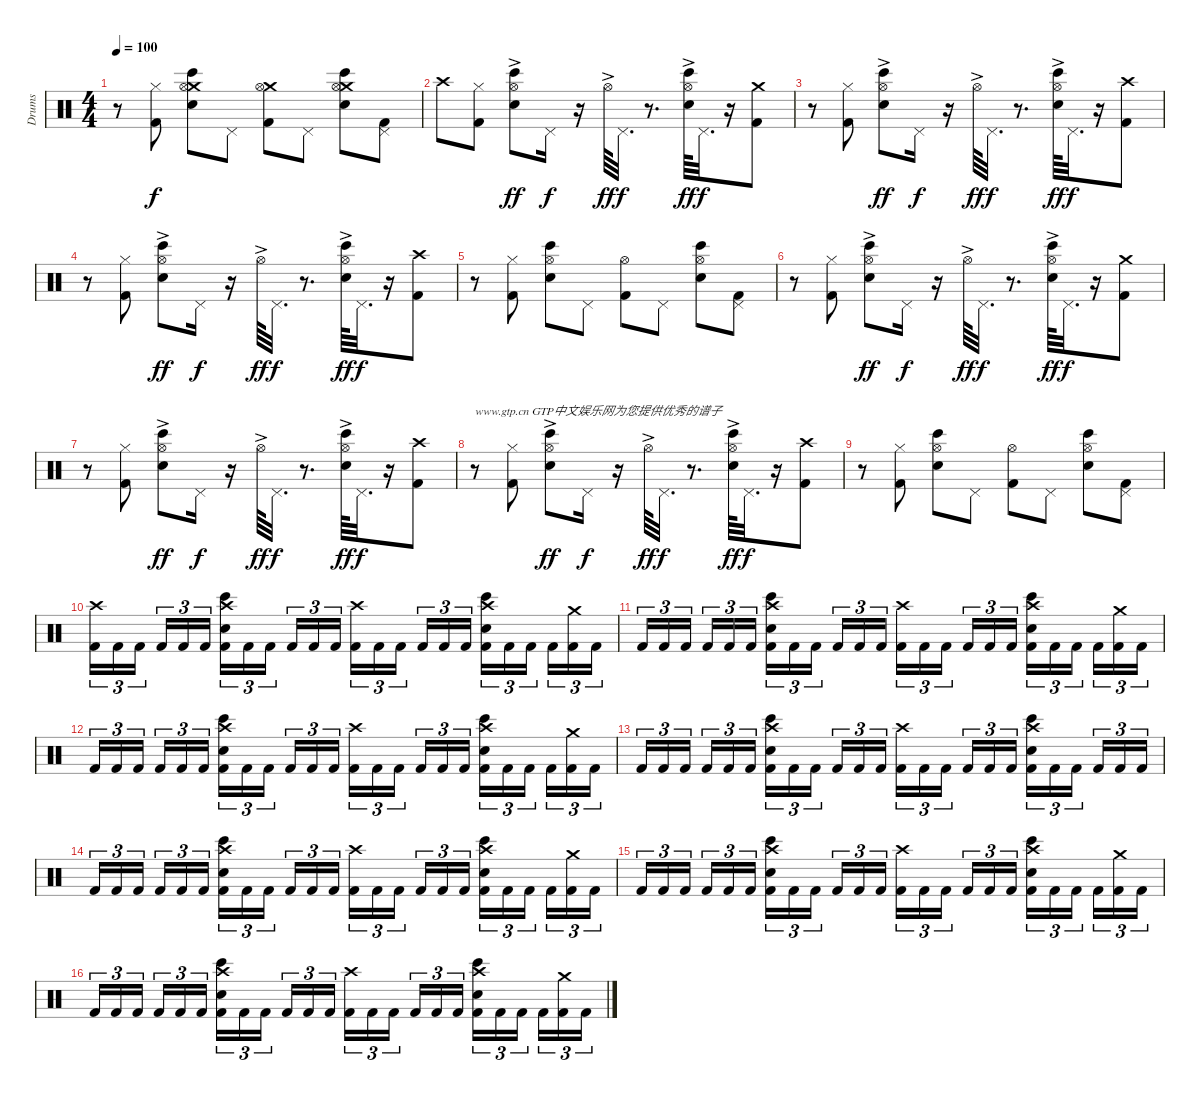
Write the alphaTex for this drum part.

\track ("Drums" "Drums") {instrument percussion}
\staff {score}
\articulation defaults
\ts (4 4)
\tempo 100
\clef neutral
\ks c
r.8{dy f} ("Hi-Hat (closed)" "Kick (hit) 2").8 ("Crash medium (hit)" "Hi-Hat (open)" "Bongo High (hit)" "Electric Snare (hit)").8 "Pedal Hi-Hat (hit)".8 ("Crash medium (hit)" "Hi-Hat (open)" "Kick (hit) 2").8 "Pedal Hi-Hat (hit)".8 ("Crash medium (hit)" "Hi-Hat (open)" "Bongo High (hit)" "Electric Snare (hit)").8 ("Pedal Hi-Hat (hit)" "Kick (hit) 2").8 |
"Crash high (hit)".8 ("Hi-Hat (closed)" "Kick (hit) 2").8 ("Hi-Hat (open)"{ac} "Bongo High (hit)" "Electric Snare (hit)").8{dy ff} "Pedal Hi-Hat (hit)".16{dy f} r.16 "Hi-Hat (open)"{ac}.64{dy ff} "Pedal Hi-Hat (hit)".32{d dy f} r.8{d} ("Hi-Hat (open)"{ac} "Bongo High (hit)" "Electric Snare (hit)").64{dy ff} "Pedal Hi-Hat (hit)".32{d dy f} r.16 ("Crash medium (hit)" "Kick (hit) 2").8 |
r.8 ("Hi-Hat (closed)" "Kick (hit) 2").8 ("Hi-Hat (open)"{ac} "Bongo High (hit)" "Electric Snare (hit)").8{dy ff} "Pedal Hi-Hat (hit)".16{dy f} r.16 "Hi-Hat (open)"{ac}.64{dy ff} "Pedal Hi-Hat (hit)".32{d dy f} r.8{d} ("Hi-Hat (open)"{ac} "Bongo High (hit)" "Electric Snare (hit)").64{dy ff} "Pedal Hi-Hat (hit)".32{d dy f} r.16 ("Crash high (hit)" "Kick (hit) 2").8 |
r.8 ("Hi-Hat (closed)" "Kick (hit) 2").8 ("Hi-Hat (open)"{ac} "Bongo High (hit)" "Electric Snare (hit)").8{dy ff} "Pedal Hi-Hat (hit)".16{dy f} r.16 "Hi-Hat (open)"{ac}.64{dy ff} "Pedal Hi-Hat (hit)".32{d dy f} r.8{d} ("Hi-Hat (open)"{ac} "Bongo High (hit)" "Electric Snare (hit)").64{dy ff} "Pedal Hi-Hat (hit)".32{d dy f} r.16 ("Crash high (hit)" "Kick (hit) 2").8 |
r.8 ("Hi-Hat (closed)" "Kick (hit) 2").8 ("Hi-Hat (open)" "Bongo High (hit)" "Electric Snare (hit)").8 "Pedal Hi-Hat (hit)".8 ("Hi-Hat (open)" "Kick (hit) 2").8 "Pedal Hi-Hat (hit)".8 ("Hi-Hat (open)" "Bongo High (hit)" "Electric Snare (hit)").8 ("Pedal Hi-Hat (hit)" "Kick (hit) 2").8 |
r.8 ("Hi-Hat (closed)" "Kick (hit) 2").8 ("Hi-Hat (open)"{ac} "Bongo High (hit)" "Electric Snare (hit)").8{dy ff} "Pedal Hi-Hat (hit)".16{dy f} r.16 "Hi-Hat (open)"{ac}.64{dy ff} "Pedal Hi-Hat (hit)".32{d dy f} r.8{d} ("Hi-Hat (open)"{ac} "Bongo High (hit)" "Electric Snare (hit)").64{dy ff} "Pedal Hi-Hat (hit)".32{d dy f} r.16 ("Crash medium (hit)" "Kick (hit) 2").8 |
r.8 ("Hi-Hat (closed)" "Kick (hit) 2").8 ("Hi-Hat (open)"{ac} "Bongo High (hit)" "Electric Snare (hit)").8{dy ff} "Pedal Hi-Hat (hit)".16{dy f} r.16 "Hi-Hat (open)"{ac}.64{dy ff} "Pedal Hi-Hat (hit)".32{d dy f} r.8{d} ("Hi-Hat (open)"{ac} "Bongo High (hit)" "Electric Snare (hit)").64{dy ff} "Pedal Hi-Hat (hit)".32{d dy f} r.16 ("Crash high (hit)" "Kick (hit) 2").8 |
r.8{txt "www.gtp.cn GTP中文娱乐网为您提供优秀的谱子"} ("Hi-Hat (closed)" "Kick (hit) 2").8 ("Hi-Hat (open)"{ac} "Bongo High (hit)" "Electric Snare (hit)").8{dy ff} "Pedal Hi-Hat (hit)".16{dy f} r.16 "Hi-Hat (open)"{ac}.64{dy ff} "Pedal Hi-Hat (hit)".32{d dy f} r.8{d} ("Hi-Hat (open)"{ac} "Bongo High (hit)" "Electric Snare (hit)").64{dy ff} "Pedal Hi-Hat (hit)".32{d dy f} r.16 ("Crash high (hit)" "Kick (hit) 2").8 |
r.8 ("Hi-Hat (closed)" "Kick (hit) 2").8 ("Hi-Hat (open)" "Bongo High (hit)" "Electric Snare (hit)").8 "Pedal Hi-Hat (hit)".8 ("Hi-Hat (open)" "Kick (hit) 2").8 "Pedal Hi-Hat (hit)".8 ("Hi-Hat (open)" "Bongo High (hit)" "Electric Snare (hit)").8 ("Pedal Hi-Hat (hit)" "Kick (hit) 2").8 |
("Crash high (hit)" "Kick (hit) 2").16{tu (3 2)} "Kick (hit) 2".16{tu (3 2)} "Kick (hit) 2".16{tu (3 2) beam splitsecondary} "Kick (hit) 2".16{tu (3 2)} "Kick (hit) 2".16{tu (3 2)} "Kick (hit) 2".16{tu (3 2)} ("Crash high (hit)" "Kick (hit) 2" "Bongo High (hit)" "Electric Snare (hit)").16{tu (3 2)} "Kick (hit) 2".16{tu (3 2)} "Kick (hit) 2".16{tu (3 2) beam splitsecondary} "Kick (hit) 2".16{tu (3 2)} "Kick (hit) 2".16{tu (3 2)} "Kick (hit) 2".16{tu (3 2)} ("Crash high (hit)" "Kick (hit) 2").16{tu (3 2)} "Kick (hit) 2".16{tu (3 2)} "Kick (hit) 2".16{tu (3 2) beam splitsecondary} "Kick (hit) 2".16{tu (3 2)} "Kick (hit) 2".16{tu (3 2)} "Kick (hit) 2".16{tu (3 2)} ("Crash high (hit)" "Kick (hit) 2" "Bongo High (hit)" "Electric Snare (hit)").16{tu (3 2)} "Kick (hit) 2".16{tu (3 2)} "Kick (hit) 2".16{tu (3 2) beam splitsecondary} "Kick (hit) 2".16{tu (3 2)} ("Crash medium (hit)" "Kick (hit) 2").16{tu (3 2)} "Kick (hit) 2".16{tu (3 2)} |
"Kick (hit) 2".16{tu (3 2)} "Kick (hit) 2".16{tu (3 2)} "Kick (hit) 2".16{tu (3 2) beam splitsecondary} "Kick (hit) 2".16{tu (3 2)} "Kick (hit) 2".16{tu (3 2)} "Kick (hit) 2".16{tu (3 2)} ("Crash high (hit)" "Kick (hit) 2" "Bongo High (hit)" "Electric Snare (hit)").16{tu (3 2)} "Kick (hit) 2".16{tu (3 2)} "Kick (hit) 2".16{tu (3 2) beam splitsecondary} "Kick (hit) 2".16{tu (3 2)} "Kick (hit) 2".16{tu (3 2)} "Kick (hit) 2".16{tu (3 2)} ("Crash high (hit)" "Kick (hit) 2").16{tu (3 2)} "Kick (hit) 2".16{tu (3 2)} "Kick (hit) 2".16{tu (3 2) beam splitsecondary} "Kick (hit) 2".16{tu (3 2)} "Kick (hit) 2".16{tu (3 2)} "Kick (hit) 2".16{tu (3 2)} ("Crash high (hit)" "Kick (hit) 2" "Bongo High (hit)" "Electric Snare (hit)").16{tu (3 2)} "Kick (hit) 2".16{tu (3 2)} "Kick (hit) 2".16{tu (3 2) beam splitsecondary} "Kick (hit) 2".16{tu (3 2)} ("Crash medium (hit)" "Kick (hit) 2").16{tu (3 2)} "Kick (hit) 2".16{tu (3 2)} |
"Kick (hit) 2".16{tu (3 2)} "Kick (hit) 2".16{tu (3 2)} "Kick (hit) 2".16{tu (3 2) beam splitsecondary} "Kick (hit) 2".16{tu (3 2)} "Kick (hit) 2".16{tu (3 2)} "Kick (hit) 2".16{tu (3 2)} ("Crash high (hit)" "Kick (hit) 2" "Bongo High (hit)" "Electric Snare (hit)").16{tu (3 2)} "Kick (hit) 2".16{tu (3 2)} "Kick (hit) 2".16{tu (3 2) beam splitsecondary} "Kick (hit) 2".16{tu (3 2)} "Kick (hit) 2".16{tu (3 2)} "Kick (hit) 2".16{tu (3 2)} ("Crash high (hit)" "Kick (hit) 2").16{tu (3 2)} "Kick (hit) 2".16{tu (3 2)} "Kick (hit) 2".16{tu (3 2) beam splitsecondary} "Kick (hit) 2".16{tu (3 2)} "Kick (hit) 2".16{tu (3 2)} "Kick (hit) 2".16{tu (3 2)} ("Crash high (hit)" "Kick (hit) 2" "Bongo High (hit)" "Electric Snare (hit)").16{tu (3 2)} "Kick (hit) 2".16{tu (3 2)} "Kick (hit) 2".16{tu (3 2) beam splitsecondary} "Kick (hit) 2".16{tu (3 2)} ("Crash medium (hit)" "Kick (hit) 2").16{tu (3 2)} "Kick (hit) 2".16{tu (3 2)} |
"Kick (hit) 2".16{tu (3 2)} "Kick (hit) 2".16{tu (3 2)} "Kick (hit) 2".16{tu (3 2) beam splitsecondary} "Kick (hit) 2".16{tu (3 2)} "Kick (hit) 2".16{tu (3 2)} "Kick (hit) 2".16{tu (3 2)} ("Crash high (hit)" "Kick (hit) 2" "Bongo High (hit)" "Electric Snare (hit)").16{tu (3 2)} "Kick (hit) 2".16{tu (3 2)} "Kick (hit) 2".16{tu (3 2) beam splitsecondary} "Kick (hit) 2".16{tu (3 2)} "Kick (hit) 2".16{tu (3 2)} "Kick (hit) 2".16{tu (3 2)} ("Crash high (hit)" "Kick (hit) 2").16{tu (3 2)} "Kick (hit) 2".16{tu (3 2)} "Kick (hit) 2".16{tu (3 2) beam splitsecondary} "Kick (hit) 2".16{tu (3 2)} "Kick (hit) 2".16{tu (3 2)} "Kick (hit) 2".16{tu (3 2)} ("Crash high (hit)" "Kick (hit) 2" "Bongo High (hit)" "Electric Snare (hit)").16{tu (3 2)} "Kick (hit) 2".16{tu (3 2)} "Kick (hit) 2".16{tu (3 2) beam splitsecondary} "Kick (hit) 2".16{tu (3 2)} "Kick (hit) 2".16{tu (3 2)} "Kick (hit) 2".16{tu (3 2)} |
"Kick (hit) 2".16{tu (3 2)} "Kick (hit) 2".16{tu (3 2)} "Kick (hit) 2".16{tu (3 2) beam splitsecondary} "Kick (hit) 2".16{tu (3 2)} "Kick (hit) 2".16{tu (3 2)} "Kick (hit) 2".16{tu (3 2)} ("Crash high (hit)" "Kick (hit) 2" "Bongo High (hit)" "Electric Snare (hit)").16{tu (3 2)} "Kick (hit) 2".16{tu (3 2)} "Kick (hit) 2".16{tu (3 2) beam splitsecondary} "Kick (hit) 2".16{tu (3 2)} "Kick (hit) 2".16{tu (3 2)} "Kick (hit) 2".16{tu (3 2)} ("Crash high (hit)" "Kick (hit) 2").16{tu (3 2)} "Kick (hit) 2".16{tu (3 2)} "Kick (hit) 2".16{tu (3 2) beam splitsecondary} "Kick (hit) 2".16{tu (3 2)} "Kick (hit) 2".16{tu (3 2)} "Kick (hit) 2".16{tu (3 2)} ("Crash high (hit)" "Kick (hit) 2" "Bongo High (hit)" "Electric Snare (hit)").16{tu (3 2)} "Kick (hit) 2".16{tu (3 2)} "Kick (hit) 2".16{tu (3 2) beam splitsecondary} "Kick (hit) 2".16{tu (3 2)} ("Crash medium (hit)" "Kick (hit) 2").16{tu (3 2)} "Kick (hit) 2".16{tu (3 2)} |
"Kick (hit) 2".16{tu (3 2)} "Kick (hit) 2".16{tu (3 2)} "Kick (hit) 2".16{tu (3 2) beam splitsecondary} "Kick (hit) 2".16{tu (3 2)} "Kick (hit) 2".16{tu (3 2)} "Kick (hit) 2".16{tu (3 2)} ("Crash high (hit)" "Kick (hit) 2" "Bongo High (hit)" "Electric Snare (hit)").16{tu (3 2)} "Kick (hit) 2".16{tu (3 2)} "Kick (hit) 2".16{tu (3 2) beam splitsecondary} "Kick (hit) 2".16{tu (3 2)} "Kick (hit) 2".16{tu (3 2)} "Kick (hit) 2".16{tu (3 2)} ("Crash high (hit)" "Kick (hit) 2").16{tu (3 2)} "Kick (hit) 2".16{tu (3 2)} "Kick (hit) 2".16{tu (3 2) beam splitsecondary} "Kick (hit) 2".16{tu (3 2)} "Kick (hit) 2".16{tu (3 2)} "Kick (hit) 2".16{tu (3 2)} ("Crash high (hit)" "Kick (hit) 2" "Bongo High (hit)" "Electric Snare (hit)").16{tu (3 2)} "Kick (hit) 2".16{tu (3 2)} "Kick (hit) 2".16{tu (3 2) beam splitsecondary} "Kick (hit) 2".16{tu (3 2)} ("Crash medium (hit)" "Kick (hit) 2").16{tu (3 2)} "Kick (hit) 2".16{tu (3 2)} |
"Kick (hit) 2".16{tu (3 2)} "Kick (hit) 2".16{tu (3 2)} "Kick (hit) 2".16{tu (3 2) beam splitsecondary} "Kick (hit) 2".16{tu (3 2)} "Kick (hit) 2".16{tu (3 2)} "Kick (hit) 2".16{tu (3 2)} ("Crash high (hit)" "Kick (hit) 2" "Bongo High (hit)" "Electric Snare (hit)").16{tu (3 2)} "Kick (hit) 2".16{tu (3 2)} "Kick (hit) 2".16{tu (3 2) beam splitsecondary} "Kick (hit) 2".16{tu (3 2)} "Kick (hit) 2".16{tu (3 2)} "Kick (hit) 2".16{tu (3 2)} ("Crash high (hit)" "Kick (hit) 2").16{tu (3 2)} "Kick (hit) 2".16{tu (3 2)} "Kick (hit) 2".16{tu (3 2) beam splitsecondary} "Kick (hit) 2".16{tu (3 2)} "Kick (hit) 2".16{tu (3 2)} "Kick (hit) 2".16{tu (3 2)} ("Crash high (hit)" "Kick (hit) 2" "Bongo High (hit)" "Electric Snare (hit)").16{tu (3 2)} "Kick (hit) 2".16{tu (3 2)} "Kick (hit) 2".16{tu (3 2) beam splitsecondary} "Kick (hit) 2".16{tu (3 2)} ("Crash medium (hit)" "Kick (hit) 2").16{tu (3 2)} "Kick (hit) 2".16{tu (3 2)}
